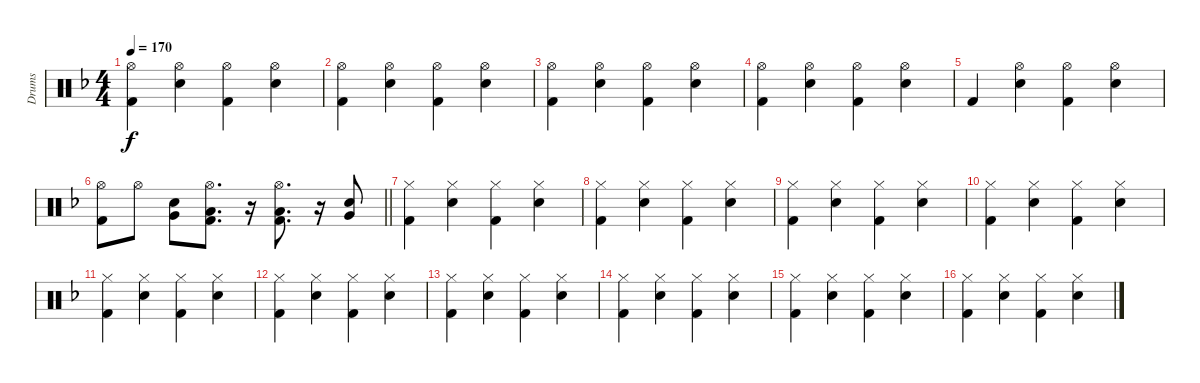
\track ("Drums" "Drums") {instrument percussion}
\staff {score}
\articulation defaults
\ts (4 4)
\tempo 170
\clef neutral
\ks f
("Hi-Hat (open)" "Kick (hit) 2").4{dy f} ("Hi-Hat (open)" "Electric Snare (hit)").4 ("Hi-Hat (open)" "Kick (hit) 2").4 ("Hi-Hat (open)" "Electric Snare (hit)").4 |
("Hi-Hat (open)" "Kick (hit) 2").4 ("Hi-Hat (open)" "Electric Snare (hit)").4 ("Hi-Hat (open)" "Kick (hit) 2").4 ("Hi-Hat (open)" "Electric Snare (hit)").4 |
("Hi-Hat (open)" "Kick (hit) 2").4 ("Hi-Hat (open)" "Electric Snare (hit)").4 ("Hi-Hat (open)" "Kick (hit) 2").4 ("Hi-Hat (open)" "Electric Snare (hit)").4 |
("Hi-Hat (open)" "Kick (hit) 2").4 ("Hi-Hat (open)" "Electric Snare (hit)").4 ("Hi-Hat (open)" "Kick (hit) 2").4 ("Hi-Hat (open)" "Electric Snare (hit)").4 |
"Kick (hit) 2".4 ("Hi-Hat (open)" "Electric Snare (hit)").4 ("Hi-Hat (open)" "Kick (hit) 2").4 ("Hi-Hat (open)" "Electric Snare (hit)").4 |
\barLineRight lightlight
("Hi-Hat (open)" "Kick (hit) 2").8 "Hi-Hat (open)".8 ("Very Low Tom (hit)" "Electric Snare (hit)").8 ("Hi-Hat (open)" "Low Floor Tom (hit)" "Kick (hit) 2").8{d} r.16 ("Hi-Hat (open)" "Low Floor Tom (hit)" "Kick (hit) 2").8{d} r.16 ("Very Low Tom (hit)" "Electric Snare (hit)").8 |
("Hi-Hat (closed)" "Kick (hit) 2").4 ("Hi-Hat (closed)" "Electric Snare (hit)").4 ("Hi-Hat (closed)" "Kick (hit) 2").4 ("Hi-Hat (closed)" "Electric Snare (hit)").4 |
("Hi-Hat (closed)" "Kick (hit) 2").4 ("Hi-Hat (closed)" "Electric Snare (hit)").4 ("Hi-Hat (closed)" "Kick (hit) 2").4 ("Hi-Hat (closed)" "Electric Snare (hit)").4 |
("Hi-Hat (closed)" "Kick (hit) 2").4 ("Hi-Hat (closed)" "Electric Snare (hit)").4 ("Hi-Hat (closed)" "Kick (hit) 2").4 ("Hi-Hat (closed)" "Electric Snare (hit)").4 |
("Hi-Hat (closed)" "Kick (hit) 2").4 ("Hi-Hat (closed)" "Electric Snare (hit)").4 ("Hi-Hat (closed)" "Kick (hit) 2").4 ("Hi-Hat (closed)" "Electric Snare (hit)").4 |
("Hi-Hat (closed)" "Kick (hit) 2").4 ("Hi-Hat (closed)" "Electric Snare (hit)").4 ("Hi-Hat (closed)" "Kick (hit) 2").4 ("Hi-Hat (closed)" "Electric Snare (hit)").4 |
("Hi-Hat (closed)" "Kick (hit) 2").4 ("Hi-Hat (closed)" "Electric Snare (hit)").4 ("Hi-Hat (closed)" "Kick (hit) 2").4 ("Hi-Hat (closed)" "Electric Snare (hit)").4 |
("Hi-Hat (closed)" "Kick (hit) 2").4 ("Hi-Hat (closed)" "Electric Snare (hit)").4 ("Hi-Hat (closed)" "Kick (hit) 2").4 ("Hi-Hat (closed)" "Electric Snare (hit)").4 |
("Hi-Hat (closed)" "Kick (hit) 2").4 ("Hi-Hat (closed)" "Electric Snare (hit)").4 ("Hi-Hat (closed)" "Kick (hit) 2").4 ("Hi-Hat (closed)" "Electric Snare (hit)").4 |
("Hi-Hat (closed)" "Kick (hit) 2").4 ("Hi-Hat (closed)" "Electric Snare (hit)").4 ("Hi-Hat (closed)" "Kick (hit) 2").4 ("Hi-Hat (closed)" "Electric Snare (hit)").4 |
("Hi-Hat (closed)" "Kick (hit) 2").4 ("Hi-Hat (closed)" "Electric Snare (hit)").4 ("Hi-Hat (closed)" "Kick (hit) 2").4 ("Hi-Hat (closed)" "Electric Snare (hit)").4
